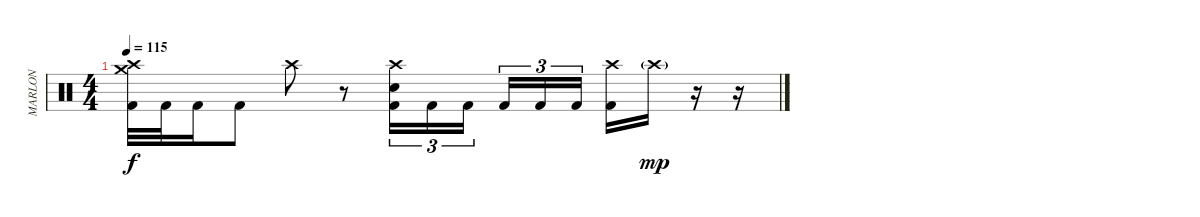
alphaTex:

\track ("MARLON" "MARLON") {instrument percussion}
\staff {score}
\articulation defaults
\ts (4 4)
\tempo 115
\clef neutral
\ks c
("Crash medium (hit)" "Crash high (hit)" "Kick (hit) 2").32{dy f} "Kick (hit) 2".32 "Kick (hit) 2".16 "Kick (hit) 2".8 "Crash high (hit)".8 r.8 ("Crash high (hit)" "Electric Snare (hit)" "Kick (hit) 2").16{tu (3 2)} "Kick (hit) 2".16{tu (3 2)} "Kick (hit) 2".16{tu (3 2) beam splitsecondary} "Kick (hit) 2".16{tu (3 2)} "Kick (hit) 2".16{tu (3 2)} "Kick (hit) 2".16{tu (3 2)} ("Crash high (hit)" "Kick (hit) 2").16 "Crash high (hit)"{g}.16{dy mp} r.16 r.16
